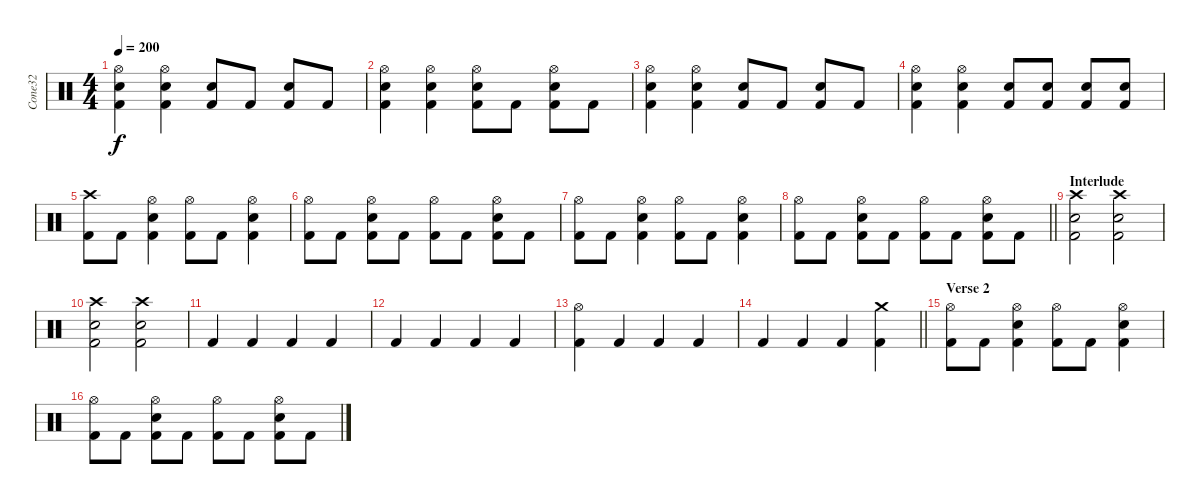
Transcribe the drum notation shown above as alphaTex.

\track ("Cone32" "Cone32") {instrument percussion}
\staff {score}
\articulation defaults
\ts (4 4)
\tempo 200
\clef neutral
\ks c
("Hi-Hat (open)" "Snare (hit) 2" "Kick (hit) 2").4{dy f} ("Hi-Hat (open)" "Snare (hit) 2" "Kick (hit) 2").4 ("Snare (hit) 2" "Kick (hit) 2").8 "Kick (hit) 2".8 ("Snare (hit) 2" "Kick (hit) 2").8 "Kick (hit) 2".8 |
("Hi-Hat (open)" "Snare (hit) 2" "Kick (hit) 2").4 ("Hi-Hat (open)" "Snare (hit) 2" "Kick (hit) 2").4 ("Hi-Hat (open)" "Snare (hit) 2" "Kick (hit) 2").8 "Kick (hit) 2".8 ("Hi-Hat (open)" "Snare (hit) 2" "Kick (hit) 2").8 "Kick (hit) 2".8 |
("Hi-Hat (open)" "Snare (hit) 2" "Kick (hit) 2").4 ("Hi-Hat (open)" "Snare (hit) 2" "Kick (hit) 2").4 ("Snare (hit) 2" "Kick (hit) 2").8 "Kick (hit) 2".8 ("Snare (hit) 2" "Kick (hit) 2").8 "Kick (hit) 2".8 |
("Hi-Hat (open)" "Snare (hit) 2" "Kick (hit) 2").4 ("Hi-Hat (open)" "Snare (hit) 2" "Kick (hit) 2").4 ("Snare (hit) 2" "Kick (hit) 2").8 ("Snare (hit) 2" "Kick (hit) 2").8 ("Snare (hit) 2" "Kick (hit) 2").8 ("Snare (hit) 2" "Kick (hit) 2").8 |
("Crash high (hit)" "Kick (hit) 2").8 "Kick (hit) 2".8 ("Hi-Hat (open)" "Snare (hit) 2" "Kick (hit) 2").4 ("Hi-Hat (open)" "Kick (hit) 2").8 "Kick (hit) 2".8 ("Hi-Hat (open)" "Snare (hit) 2" "Kick (hit) 2").4 |
("Hi-Hat (open)" "Kick (hit) 2").8 "Kick (hit) 2".8 ("Hi-Hat (open)" "Snare (hit) 2" "Kick (hit) 2").8 "Kick (hit) 2".8 ("Hi-Hat (open)" "Kick (hit) 2").8 "Kick (hit) 2".8 ("Hi-Hat (open)" "Snare (hit) 2" "Kick (hit) 2").8 "Kick (hit) 2".8 |
("Hi-Hat (open)" "Kick (hit) 2").8 "Kick (hit) 2".8 ("Hi-Hat (open)" "Snare (hit) 2" "Kick (hit) 2").4 ("Hi-Hat (open)" "Kick (hit) 2").8 "Kick (hit) 2".8 ("Hi-Hat (open)" "Snare (hit) 2" "Kick (hit) 2").4 |
\barLineRight lightlight
("Hi-Hat (open)" "Kick (hit) 2").8 "Kick (hit) 2".8 ("Hi-Hat (open)" "Snare (hit) 2" "Kick (hit) 2").8 "Kick (hit) 2".8 ("Hi-Hat (open)" "Kick (hit) 2").8 "Kick (hit) 2".8 ("Hi-Hat (open)" "Snare (hit) 2" "Kick (hit) 2").8 "Kick (hit) 2".8 |
\section ("" "Interlude")
("Crash high (hit)" "Snare (hit) 2" "Kick (hit) 2").2 ("Crash high (hit)" "Snare (hit) 2" "Kick (hit) 2").2 |
("Crash high (hit)" "Snare (hit) 2" "Kick (hit) 2").2 ("Crash high (hit)" "Snare (hit) 2" "Kick (hit) 2").2 |
"Kick (hit) 2".4 "Kick (hit) 2".4 "Kick (hit) 2".4 "Kick (hit) 2".4 |
"Kick (hit) 2".4 "Kick (hit) 2".4 "Kick (hit) 2".4 "Kick (hit) 2".4 |
("Hi-Hat (open)" "Kick (hit) 2").4 "Kick (hit) 2".4 "Kick (hit) 2".4 "Kick (hit) 2".4 |
\barLineRight lightlight "Kick (hit) 2".4 "Kick (hit) 2".4 "Kick (hit) 2".4
("Crash medium (hit)" "Kick (hit) 2").4 |
\section ("" "Verse 2")
("Hi-Hat (open)" "Kick (hit) 2").8 "Kick (hit) 2".8 ("Hi-Hat (open)" "Snare (hit) 2" "Kick (hit) 2").4 ("Hi-Hat (open)" "Kick (hit) 2").8 "Kick (hit) 2".8 ("Hi-Hat (open)" "Snare (hit) 2" "Kick (hit) 2").4 |
("Hi-Hat (open)" "Kick (hit) 2").8 "Kick (hit) 2".8 ("Hi-Hat (open)" "Snare (hit) 2" "Kick (hit) 2").8 "Kick (hit) 2".8 ("Hi-Hat (open)" "Kick (hit) 2").8 "Kick (hit) 2".8 ("Hi-Hat (open)" "Snare (hit) 2" "Kick (hit) 2").8 "Kick (hit) 2".8
